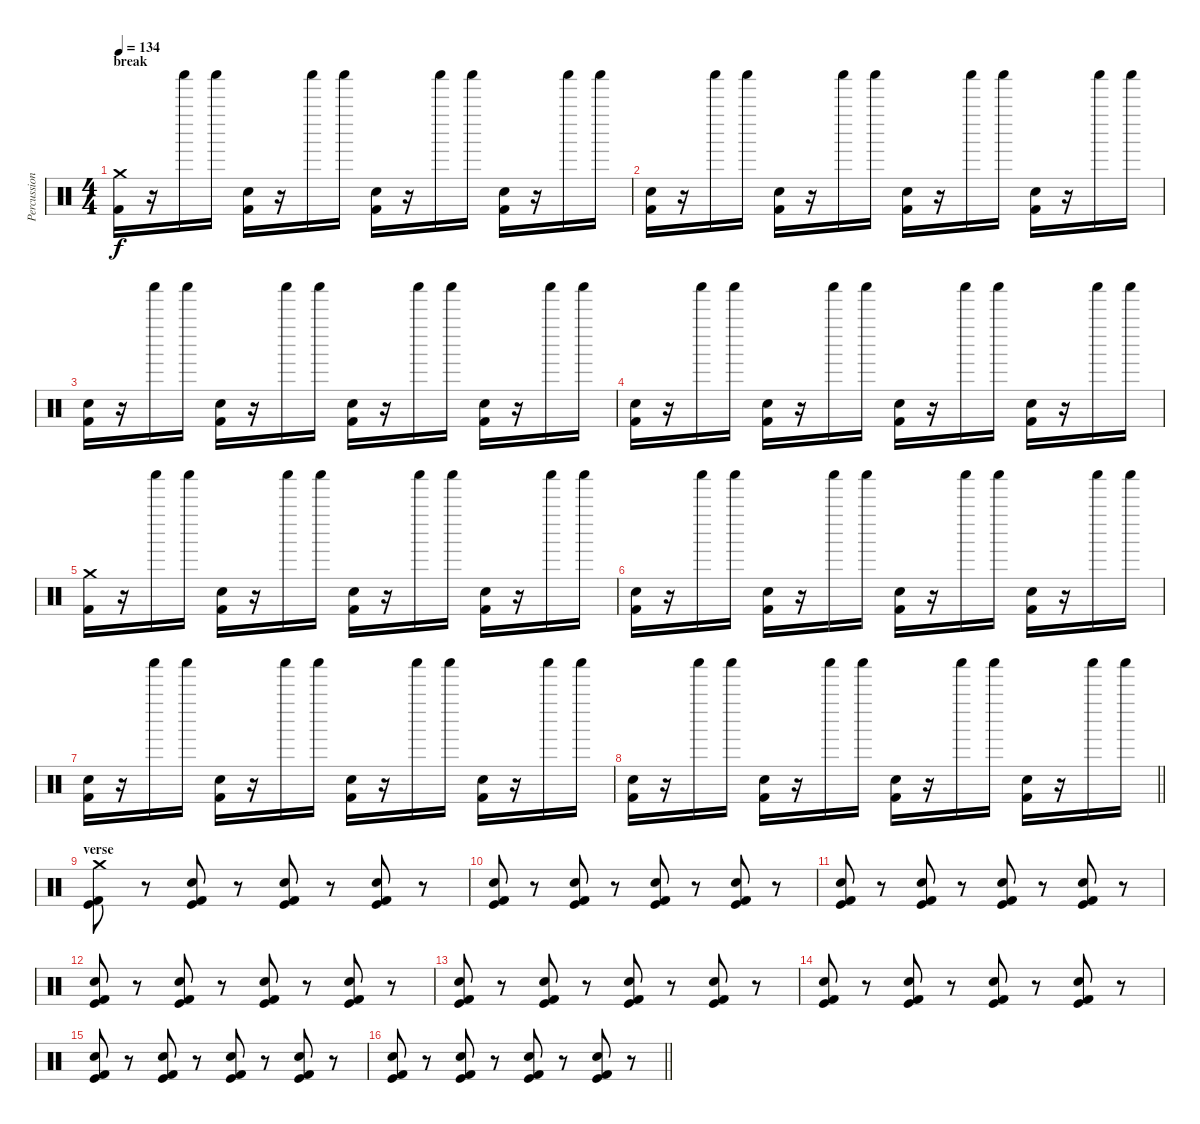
\track ("Percussion" "Percussion") {instrument percussion}
\staff {score}
\articulation defaults
\ts (4 4)
\section ("" "break")
\tempo 134
\clef neutral
\ks c
("Crash medium (hit)" "Kick (hit) 2").16{dy f} r.16 "Shaker (hit)".16 "Shaker (hit)".16 ("Hand Clap (hit)" "Kick (hit) 2").16 r.16 "Shaker (hit)".16 "Shaker (hit)".16 ("Hand Clap (hit)" "Kick (hit) 2").16 r.16 "Shaker (hit)".16 "Shaker (hit)".16 ("Hand Clap (hit)" "Kick (hit) 2").16 r.16 "Shaker (hit)".16 "Shaker (hit)".16 |
("Hand Clap (hit)" "Kick (hit) 2").16 r.16 "Shaker (hit)".16 "Shaker (hit)".16 ("Hand Clap (hit)" "Kick (hit) 2").16 r.16 "Shaker (hit)".16 "Shaker (hit)".16 ("Hand Clap (hit)" "Kick (hit) 2").16 r.16 "Shaker (hit)".16 "Shaker (hit)".16 ("Hand Clap (hit)" "Kick (hit) 2").16 r.16 "Shaker (hit)".16 "Shaker (hit)".16 |
("Hand Clap (hit)" "Kick (hit) 2").16 r.16 "Shaker (hit)".16 "Shaker (hit)".16 ("Hand Clap (hit)" "Kick (hit) 2").16 r.16 "Shaker (hit)".16 "Shaker (hit)".16 ("Hand Clap (hit)" "Kick (hit) 2").16 r.16 "Shaker (hit)".16 "Shaker (hit)".16 ("Hand Clap (hit)" "Kick (hit) 2").16 r.16 "Shaker (hit)".16 "Shaker (hit)".16 |
("Hand Clap (hit)" "Kick (hit) 2").16 r.16 "Shaker (hit)".16 "Shaker (hit)".16 ("Hand Clap (hit)" "Kick (hit) 2").16 r.16 "Shaker (hit)".16 "Shaker (hit)".16 ("Hand Clap (hit)" "Kick (hit) 2").16 r.16 "Shaker (hit)".16 "Shaker (hit)".16 ("Hand Clap (hit)" "Kick (hit) 2").16 r.16 "Shaker (hit)".16 "Shaker (hit)".16 |
("Crash medium (hit)" "Kick (hit) 2").16 r.16 "Shaker (hit)".16 "Shaker (hit)".16 ("Hand Clap (hit)" "Kick (hit) 2").16 r.16 "Shaker (hit)".16 "Shaker (hit)".16 ("Hand Clap (hit)" "Kick (hit) 2").16 r.16 "Shaker (hit)".16 "Shaker (hit)".16 ("Hand Clap (hit)" "Kick (hit) 2").16 r.16 "Shaker (hit)".16 "Shaker (hit)".16 |
("Hand Clap (hit)" "Kick (hit) 2").16 r.16 "Shaker (hit)".16 "Shaker (hit)".16 ("Hand Clap (hit)" "Kick (hit) 2").16 r.16 "Shaker (hit)".16 "Shaker (hit)".16 ("Hand Clap (hit)" "Kick (hit) 2").16 r.16 "Shaker (hit)".16 "Shaker (hit)".16 ("Hand Clap (hit)" "Kick (hit) 2").16 r.16 "Shaker (hit)".16 "Shaker (hit)".16 |
("Hand Clap (hit)" "Kick (hit) 2").16 r.16 "Shaker (hit)".16 "Shaker (hit)".16 ("Hand Clap (hit)" "Kick (hit) 2").16 r.16 "Shaker (hit)".16 "Shaker (hit)".16 ("Hand Clap (hit)" "Kick (hit) 2").16 r.16 "Shaker (hit)".16 "Shaker (hit)".16 ("Hand Clap (hit)" "Kick (hit) 2").16 r.16 "Shaker (hit)".16 "Shaker (hit)".16 |
\barLineRight lightlight
("Hand Clap (hit)" "Kick (hit) 2").16 r.16 "Shaker (hit)".16 "Shaker (hit)".16 ("Hand Clap (hit)" "Kick (hit) 2").16 r.16 "Shaker (hit)".16 "Shaker (hit)".16 ("Hand Clap (hit)" "Kick (hit) 2").16 r.16 "Shaker (hit)".16 "Shaker (hit)".16 ("Hand Clap (hit)" "Kick (hit) 2").16 r.16 "Shaker (hit)".16 "Shaker (hit)".16 |
\section ("" "verse")
("Crash medium (hit)" "Kick (hit) 2" "Kick (hit)").8 r.8 ("Hand Clap (hit)" "Kick (hit) 2" "Kick (hit)").8 r.8 ("Hand Clap (hit)" "Kick (hit) 2" "Kick (hit)").8 r.8 ("Hand Clap (hit)" "Kick (hit) 2" "Kick (hit)").8 r.8 |
("Hand Clap (hit)" "Kick (hit) 2" "Kick (hit)").8 r.8 ("Hand Clap (hit)" "Kick (hit) 2" "Kick (hit)").8 r.8 ("Hand Clap (hit)" "Kick (hit) 2" "Kick (hit)").8 r.8 ("Hand Clap (hit)" "Kick (hit) 2" "Kick (hit)").8 r.8 |
("Hand Clap (hit)" "Kick (hit) 2" "Kick (hit)").8 r.8 ("Hand Clap (hit)" "Kick (hit) 2" "Kick (hit)").8 r.8 ("Hand Clap (hit)" "Kick (hit) 2" "Kick (hit)").8 r.8 ("Hand Clap (hit)" "Kick (hit) 2" "Kick (hit)").8 r.8 |
("Hand Clap (hit)" "Kick (hit) 2" "Kick (hit)").8 r.8 ("Hand Clap (hit)" "Kick (hit) 2" "Kick (hit)").8 r.8 ("Hand Clap (hit)" "Kick (hit) 2" "Kick (hit)").8 r.8 ("Hand Clap (hit)" "Kick (hit) 2" "Kick (hit)").8 r.8 |
("Hand Clap (hit)" "Kick (hit) 2" "Kick (hit)").8 r.8 ("Hand Clap (hit)" "Kick (hit) 2" "Kick (hit)").8 r.8 ("Hand Clap (hit)" "Kick (hit) 2" "Kick (hit)").8 r.8 ("Hand Clap (hit)" "Kick (hit) 2" "Kick (hit)").8 r.8 |
("Hand Clap (hit)" "Kick (hit) 2" "Kick (hit)").8 r.8 ("Hand Clap (hit)" "Kick (hit) 2" "Kick (hit)").8 r.8 ("Hand Clap (hit)" "Kick (hit) 2" "Kick (hit)").8 r.8 ("Hand Clap (hit)" "Kick (hit) 2" "Kick (hit)").8 r.8 |
("Hand Clap (hit)" "Kick (hit) 2" "Kick (hit)").8 r.8 ("Hand Clap (hit)" "Kick (hit) 2" "Kick (hit)").8 r.8 ("Hand Clap (hit)" "Kick (hit) 2" "Kick (hit)").8 r.8 ("Hand Clap (hit)" "Kick (hit) 2" "Kick (hit)").8 r.8 |
\barLineRight lightlight
("Hand Clap (hit)" "Kick (hit) 2" "Kick (hit)").8 r.8 ("Hand Clap (hit)" "Kick (hit) 2" "Kick (hit)").8 r.8 ("Hand Clap (hit)" "Kick (hit) 2" "Kick (hit)").8 r.8 ("Hand Clap (hit)" "Kick (hit) 2" "Kick (hit)").8 r.8
